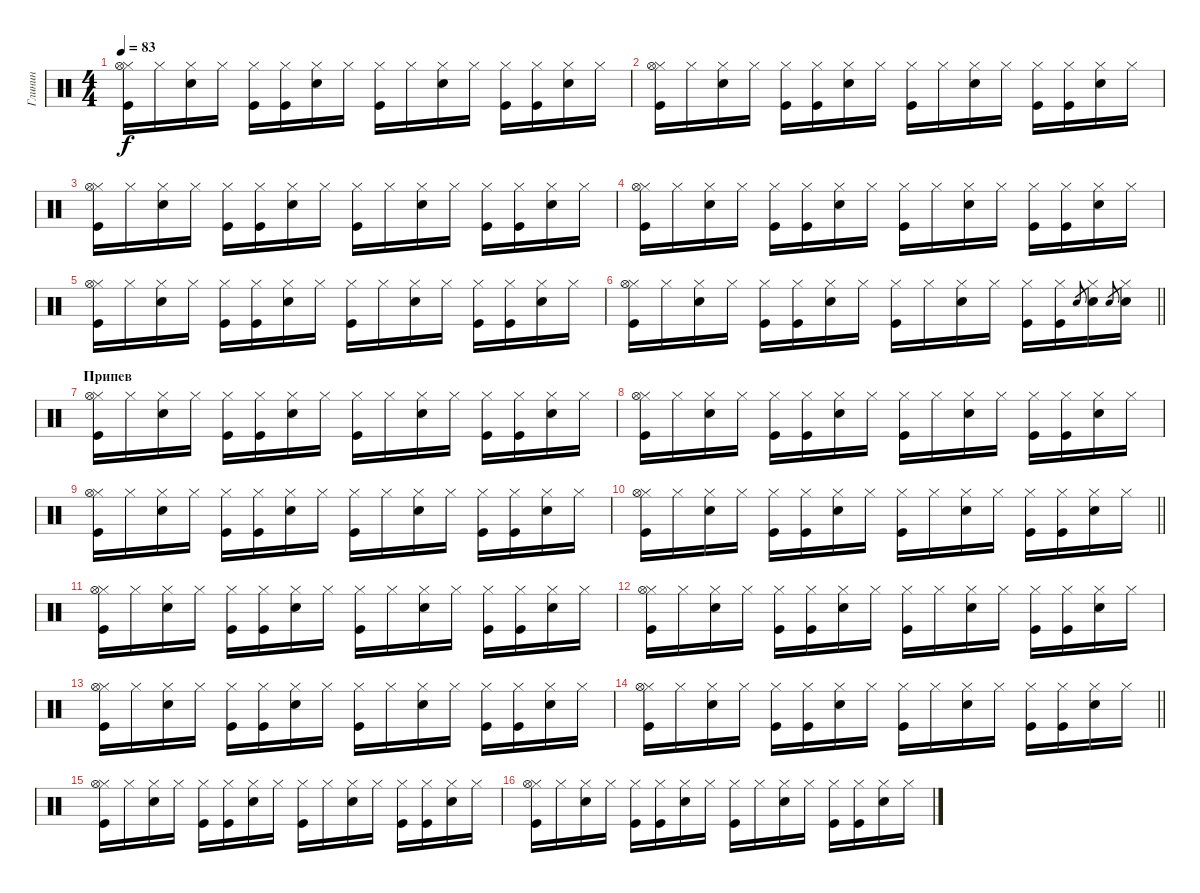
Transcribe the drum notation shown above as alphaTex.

\track ("Глинин" "Глинин") {instrument percussion}
\staff {score}
\articulation defaults
\ts (4 4)
\tempo 83
\clef neutral
\ks c
("Hi-Hat (closed)" "Kick (hit)" "Hi-Hat (open)").16{dy f} "Hi-Hat (closed)".16 ("Hi-Hat (closed)" "Snare (hit) 2").16 "Hi-Hat (closed)".16 ("Hi-Hat (closed)" "Kick (hit)").16 ("Hi-Hat (closed)" "Kick (hit)").16 ("Hi-Hat (closed)" "Snare (hit) 2").16 "Hi-Hat (closed)".16 ("Hi-Hat (closed)" "Kick (hit)").16 "Hi-Hat (closed)".16 ("Hi-Hat (closed)" "Snare (hit) 2").16 "Hi-Hat (closed)".16 ("Hi-Hat (closed)" "Kick (hit)").16 ("Hi-Hat (closed)" "Kick (hit)").16 ("Hi-Hat (closed)" "Snare (hit) 2").16 "Hi-Hat (closed)".16 |
("Hi-Hat (closed)" "Kick (hit)" "Hi-Hat (open)").16 "Hi-Hat (closed)".16 ("Hi-Hat (closed)" "Snare (hit) 2").16 "Hi-Hat (closed)".16 ("Hi-Hat (closed)" "Kick (hit)").16 ("Hi-Hat (closed)" "Kick (hit)").16 ("Hi-Hat (closed)" "Snare (hit) 2").16 "Hi-Hat (closed)".16 ("Hi-Hat (closed)" "Kick (hit)").16 "Hi-Hat (closed)".16 ("Hi-Hat (closed)" "Snare (hit) 2").16 "Hi-Hat (closed)".16 ("Hi-Hat (closed)" "Kick (hit)").16 ("Hi-Hat (closed)" "Kick (hit)").16 ("Hi-Hat (closed)" "Snare (hit) 2").16 "Hi-Hat (closed)".16 |
("Hi-Hat (closed)" "Kick (hit)" "Hi-Hat (open)").16 "Hi-Hat (closed)".16 ("Hi-Hat (closed)" "Snare (hit) 2").16 "Hi-Hat (closed)".16 ("Hi-Hat (closed)" "Kick (hit)").16 ("Hi-Hat (closed)" "Kick (hit)").16 ("Hi-Hat (closed)" "Snare (hit) 2").16 "Hi-Hat (closed)".16 ("Hi-Hat (closed)" "Kick (hit)").16 "Hi-Hat (closed)".16 ("Hi-Hat (closed)" "Snare (hit) 2").16 "Hi-Hat (closed)".16 ("Hi-Hat (closed)" "Kick (hit)").16 ("Hi-Hat (closed)" "Kick (hit)").16 ("Hi-Hat (closed)" "Snare (hit) 2").16 "Hi-Hat (closed)".16 |
("Hi-Hat (closed)" "Kick (hit)" "Hi-Hat (open)").16 "Hi-Hat (closed)".16 ("Hi-Hat (closed)" "Snare (hit) 2").16 "Hi-Hat (closed)".16 ("Hi-Hat (closed)" "Kick (hit)").16 ("Hi-Hat (closed)" "Kick (hit)").16 ("Hi-Hat (closed)" "Snare (hit) 2").16 "Hi-Hat (closed)".16 ("Hi-Hat (closed)" "Kick (hit)").16 "Hi-Hat (closed)".16 ("Hi-Hat (closed)" "Snare (hit) 2").16 "Hi-Hat (closed)".16 ("Hi-Hat (closed)" "Kick (hit)").16 ("Hi-Hat (closed)" "Kick (hit)").16 ("Hi-Hat (closed)" "Snare (hit) 2").16 "Hi-Hat (closed)".16 |
("Hi-Hat (closed)" "Kick (hit)" "Hi-Hat (open)").16 "Hi-Hat (closed)".16 ("Hi-Hat (closed)" "Snare (hit) 2").16 "Hi-Hat (closed)".16 ("Hi-Hat (closed)" "Kick (hit)").16 ("Hi-Hat (closed)" "Kick (hit)").16 ("Hi-Hat (closed)" "Snare (hit) 2").16 "Hi-Hat (closed)".16 ("Hi-Hat (closed)" "Kick (hit)").16 "Hi-Hat (closed)".16 ("Hi-Hat (closed)" "Snare (hit) 2").16 "Hi-Hat (closed)".16 ("Hi-Hat (closed)" "Kick (hit)").16 ("Hi-Hat (closed)" "Kick (hit)").16 ("Hi-Hat (closed)" "Snare (hit) 2").16 "Hi-Hat (closed)".16 |
\barLineRight lightlight
("Hi-Hat (closed)" "Kick (hit)" "Hi-Hat (open)").16 "Hi-Hat (closed)".16 ("Hi-Hat (closed)" "Snare (hit) 2").16 "Hi-Hat (closed)".16 ("Hi-Hat (closed)" "Kick (hit)").16 ("Hi-Hat (closed)" "Kick (hit)").16 ("Hi-Hat (closed)" "Snare (hit) 2").16 "Hi-Hat (closed)".16 ("Hi-Hat (closed)" "Kick (hit)").16 "Hi-Hat (closed)".16 ("Hi-Hat (closed)" "Snare (hit) 2").16 "Hi-Hat (closed)".16 ("Hi-Hat (closed)" "Kick (hit)").16 ("Hi-Hat (closed)" "Kick (hit)").16 "Snare (hit) 2".8{gr} ("Hi-Hat (closed)" "Snare (hit) 2").16 "Snare (hit) 2".8{gr} ("Hi-Hat (closed)" "Snare (hit) 2").16 |
\section ("" "Припев")
("Hi-Hat (closed)" "Kick (hit)" "Hi-Hat (open)").16 "Hi-Hat (closed)".16 ("Hi-Hat (closed)" "Snare (hit) 2").16 "Hi-Hat (closed)".16 ("Hi-Hat (closed)" "Kick (hit)").16 ("Hi-Hat (closed)" "Kick (hit)").16 ("Hi-Hat (closed)" "Snare (hit) 2").16 "Hi-Hat (closed)".16 ("Hi-Hat (closed)" "Kick (hit)").16 "Hi-Hat (closed)".16 ("Hi-Hat (closed)" "Snare (hit) 2").16 "Hi-Hat (closed)".16 ("Hi-Hat (closed)" "Kick (hit)").16 ("Hi-Hat (closed)" "Kick (hit)").16 ("Hi-Hat (closed)" "Snare (hit) 2").16 "Hi-Hat (closed)".16 |
("Hi-Hat (closed)" "Kick (hit)" "Hi-Hat (open)").16 "Hi-Hat (closed)".16 ("Hi-Hat (closed)" "Snare (hit) 2").16 "Hi-Hat (closed)".16 ("Hi-Hat (closed)" "Kick (hit)").16 ("Hi-Hat (closed)" "Kick (hit)").16 ("Hi-Hat (closed)" "Snare (hit) 2").16 "Hi-Hat (closed)".16 ("Hi-Hat (closed)" "Kick (hit)").16 "Hi-Hat (closed)".16 ("Hi-Hat (closed)" "Snare (hit) 2").16 "Hi-Hat (closed)".16 ("Hi-Hat (closed)" "Kick (hit)").16 ("Hi-Hat (closed)" "Kick (hit)").16 ("Hi-Hat (closed)" "Snare (hit) 2").16 "Hi-Hat (closed)".16 |
("Hi-Hat (closed)" "Kick (hit)" "Hi-Hat (open)").16 "Hi-Hat (closed)".16 ("Hi-Hat (closed)" "Snare (hit) 2").16 "Hi-Hat (closed)".16 ("Hi-Hat (closed)" "Kick (hit)").16 ("Hi-Hat (closed)" "Kick (hit)").16 ("Hi-Hat (closed)" "Snare (hit) 2").16 "Hi-Hat (closed)".16 ("Hi-Hat (closed)" "Kick (hit)").16 "Hi-Hat (closed)".16 ("Hi-Hat (closed)" "Snare (hit) 2").16 "Hi-Hat (closed)".16 ("Hi-Hat (closed)" "Kick (hit)").16 ("Hi-Hat (closed)" "Kick (hit)").16 ("Hi-Hat (closed)" "Snare (hit) 2").16 "Hi-Hat (closed)".16 |
\barLineRight lightlight
("Hi-Hat (closed)" "Kick (hit)" "Hi-Hat (open)").16 "Hi-Hat (closed)".16 ("Hi-Hat (closed)" "Snare (hit) 2").16 "Hi-Hat (closed)".16 ("Hi-Hat (closed)" "Kick (hit)").16 ("Hi-Hat (closed)" "Kick (hit)").16 ("Hi-Hat (closed)" "Snare (hit) 2").16 "Hi-Hat (closed)".16 ("Hi-Hat (closed)" "Kick (hit)").16 "Hi-Hat (closed)".16 ("Hi-Hat (closed)" "Snare (hit) 2").16 "Hi-Hat (closed)".16 ("Hi-Hat (closed)" "Kick (hit)").16 ("Hi-Hat (closed)" "Kick (hit)").16 ("Hi-Hat (closed)" "Snare (hit) 2").16 "Hi-Hat (closed)".16 |
("Hi-Hat (closed)" "Kick (hit)" "Hi-Hat (open)").16 "Hi-Hat (closed)".16 ("Hi-Hat (closed)" "Snare (hit) 2").16 "Hi-Hat (closed)".16 ("Hi-Hat (closed)" "Kick (hit)").16 ("Hi-Hat (closed)" "Kick (hit)").16 ("Hi-Hat (closed)" "Snare (hit) 2").16 "Hi-Hat (closed)".16 ("Hi-Hat (closed)" "Kick (hit)").16 "Hi-Hat (closed)".16 ("Hi-Hat (closed)" "Snare (hit) 2").16 "Hi-Hat (closed)".16 ("Hi-Hat (closed)" "Kick (hit)").16 ("Hi-Hat (closed)" "Kick (hit)").16 ("Hi-Hat (closed)" "Snare (hit) 2").16 "Hi-Hat (closed)".16 |
("Hi-Hat (closed)" "Kick (hit)" "Hi-Hat (open)").16 "Hi-Hat (closed)".16 ("Hi-Hat (closed)" "Snare (hit) 2").16 "Hi-Hat (closed)".16 ("Hi-Hat (closed)" "Kick (hit)").16 ("Hi-Hat (closed)" "Kick (hit)").16 ("Hi-Hat (closed)" "Snare (hit) 2").16 "Hi-Hat (closed)".16 ("Hi-Hat (closed)" "Kick (hit)").16 "Hi-Hat (closed)".16 ("Hi-Hat (closed)" "Snare (hit) 2").16 "Hi-Hat (closed)".16 ("Hi-Hat (closed)" "Kick (hit)").16 ("Hi-Hat (closed)" "Kick (hit)").16 ("Hi-Hat (closed)" "Snare (hit) 2").16 "Hi-Hat (closed)".16 |
("Hi-Hat (closed)" "Kick (hit)" "Hi-Hat (open)").16 "Hi-Hat (closed)".16 ("Hi-Hat (closed)" "Snare (hit) 2").16 "Hi-Hat (closed)".16 ("Hi-Hat (closed)" "Kick (hit)").16 ("Hi-Hat (closed)" "Kick (hit)").16 ("Hi-Hat (closed)" "Snare (hit) 2").16 "Hi-Hat (closed)".16 ("Hi-Hat (closed)" "Kick (hit)").16 "Hi-Hat (closed)".16 ("Hi-Hat (closed)" "Snare (hit) 2").16 "Hi-Hat (closed)".16 ("Hi-Hat (closed)" "Kick (hit)").16 ("Hi-Hat (closed)" "Kick (hit)").16 ("Hi-Hat (closed)" "Snare (hit) 2").16 "Hi-Hat (closed)".16 |
\barLineRight lightlight
("Hi-Hat (closed)" "Kick (hit)" "Hi-Hat (open)").16 "Hi-Hat (closed)".16 ("Hi-Hat (closed)" "Snare (hit) 2").16 "Hi-Hat (closed)".16 ("Hi-Hat (closed)" "Kick (hit)").16 ("Hi-Hat (closed)" "Kick (hit)").16 ("Hi-Hat (closed)" "Snare (hit) 2").16 "Hi-Hat (closed)".16 ("Hi-Hat (closed)" "Kick (hit)").16 "Hi-Hat (closed)".16 ("Hi-Hat (closed)" "Snare (hit) 2").16 "Hi-Hat (closed)".16 ("Hi-Hat (closed)" "Kick (hit)").16 ("Hi-Hat (closed)" "Kick (hit)").16 ("Hi-Hat (closed)" "Snare (hit) 2").16 "Hi-Hat (closed)".16 |
("Hi-Hat (closed)" "Kick (hit)" "Hi-Hat (open)").16 "Hi-Hat (closed)".16 ("Hi-Hat (closed)" "Snare (hit) 2").16 "Hi-Hat (closed)".16 ("Hi-Hat (closed)" "Kick (hit)").16 ("Hi-Hat (closed)" "Kick (hit)").16 ("Hi-Hat (closed)" "Snare (hit) 2").16 "Hi-Hat (closed)".16 ("Hi-Hat (closed)" "Kick (hit)").16 "Hi-Hat (closed)".16 ("Hi-Hat (closed)" "Snare (hit) 2").16 "Hi-Hat (closed)".16 ("Hi-Hat (closed)" "Kick (hit)").16 ("Hi-Hat (closed)" "Kick (hit)").16 ("Hi-Hat (closed)" "Snare (hit) 2").16 "Hi-Hat (closed)".16 |
("Hi-Hat (closed)" "Kick (hit)" "Hi-Hat (open)").16 "Hi-Hat (closed)".16 ("Hi-Hat (closed)" "Snare (hit) 2").16 "Hi-Hat (closed)".16 ("Hi-Hat (closed)" "Kick (hit)").16 ("Hi-Hat (closed)" "Kick (hit)").16 ("Hi-Hat (closed)" "Snare (hit) 2").16 "Hi-Hat (closed)".16 ("Hi-Hat (closed)" "Kick (hit)").16 "Hi-Hat (closed)".16 ("Hi-Hat (closed)" "Snare (hit) 2").16 "Hi-Hat (closed)".16 ("Hi-Hat (closed)" "Kick (hit)").16 ("Hi-Hat (closed)" "Kick (hit)").16 ("Hi-Hat (closed)" "Snare (hit) 2").16 "Hi-Hat (closed)".16
